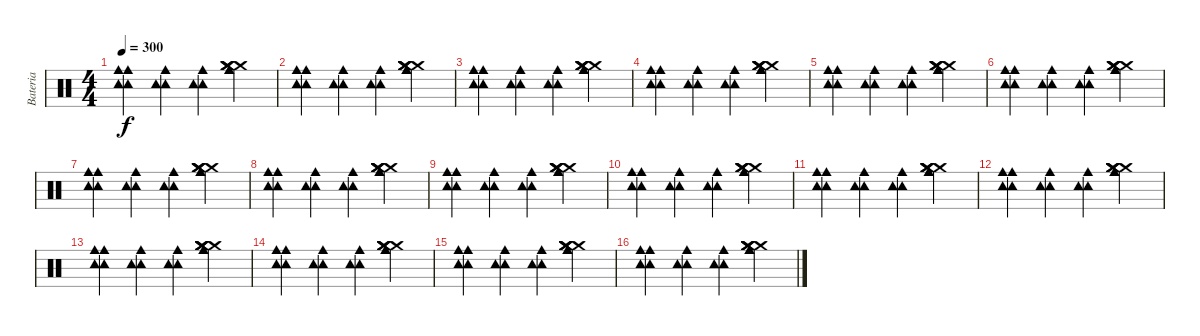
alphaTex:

\track ("Bateria" "Bateria") {instrument percussion}
\staff {score}
\articulation defaults
\ts (4 4)
\tempo 300
\clef neutral
\ks c
("Tambourine (hit)" "Tambourine (hit)" "Cowbell medium (hit)" "Cowbell medium (hit)").4{dy f} ("Tambourine (hit)" "Tambourine (hit)" "Cowbell medium (hit)").4 ("Tambourine (hit)" "Tambourine (hit)" "Cowbell medium (hit)").4 ("Crash medium (hit)" "Crash medium (hit)" "Crash medium (hit)" "Crash medium (hit)" "Cowbell medium (hit)" "Cowbell medium (hit)").4 |
("Tambourine (hit)" "Tambourine (hit)" "Cowbell medium (hit)" "Cowbell medium (hit)").4 ("Tambourine (hit)" "Tambourine (hit)" "Cowbell medium (hit)").4 ("Tambourine (hit)" "Tambourine (hit)" "Cowbell medium (hit)").4 ("Crash medium (hit)" "Crash medium (hit)" "Crash medium (hit)" "Crash medium (hit)" "Cowbell medium (hit)" "Cowbell medium (hit)").4 |
("Tambourine (hit)" "Tambourine (hit)" "Cowbell medium (hit)" "Cowbell medium (hit)").4 ("Tambourine (hit)" "Tambourine (hit)" "Cowbell medium (hit)").4 ("Tambourine (hit)" "Tambourine (hit)" "Cowbell medium (hit)").4 ("Crash medium (hit)" "Crash medium (hit)" "Crash medium (hit)" "Crash medium (hit)" "Cowbell medium (hit)" "Cowbell medium (hit)").4 |
("Tambourine (hit)" "Tambourine (hit)" "Cowbell medium (hit)" "Cowbell medium (hit)").4 ("Tambourine (hit)" "Tambourine (hit)" "Cowbell medium (hit)").4 ("Tambourine (hit)" "Tambourine (hit)" "Cowbell medium (hit)").4 ("Crash medium (hit)" "Crash medium (hit)" "Crash medium (hit)" "Crash medium (hit)" "Cowbell medium (hit)" "Cowbell medium (hit)").4 |
("Tambourine (hit)" "Tambourine (hit)" "Cowbell medium (hit)" "Cowbell medium (hit)").4 ("Tambourine (hit)" "Tambourine (hit)" "Cowbell medium (hit)").4 ("Tambourine (hit)" "Tambourine (hit)" "Cowbell medium (hit)").4 ("Crash medium (hit)" "Crash medium (hit)" "Crash medium (hit)" "Crash medium (hit)" "Cowbell medium (hit)" "Cowbell medium (hit)").4 |
("Tambourine (hit)" "Tambourine (hit)" "Cowbell medium (hit)" "Cowbell medium (hit)").4 ("Tambourine (hit)" "Tambourine (hit)" "Cowbell medium (hit)").4 ("Tambourine (hit)" "Tambourine (hit)" "Cowbell medium (hit)").4 ("Crash medium (hit)" "Crash medium (hit)" "Crash medium (hit)" "Crash medium (hit)" "Cowbell medium (hit)" "Cowbell medium (hit)").4 |
("Tambourine (hit)" "Tambourine (hit)" "Cowbell medium (hit)" "Cowbell medium (hit)").4 ("Tambourine (hit)" "Tambourine (hit)" "Cowbell medium (hit)").4 ("Tambourine (hit)" "Tambourine (hit)" "Cowbell medium (hit)").4 ("Crash medium (hit)" "Crash medium (hit)" "Crash medium (hit)" "Crash medium (hit)" "Cowbell medium (hit)" "Cowbell medium (hit)").4 |
("Tambourine (hit)" "Tambourine (hit)" "Cowbell medium (hit)" "Cowbell medium (hit)").4 ("Tambourine (hit)" "Tambourine (hit)" "Cowbell medium (hit)").4 ("Tambourine (hit)" "Tambourine (hit)" "Cowbell medium (hit)").4 ("Crash medium (hit)" "Crash medium (hit)" "Crash medium (hit)" "Crash medium (hit)" "Cowbell medium (hit)" "Cowbell medium (hit)").4 |
("Tambourine (hit)" "Tambourine (hit)" "Cowbell medium (hit)" "Cowbell medium (hit)").4 ("Tambourine (hit)" "Tambourine (hit)" "Cowbell medium (hit)").4 ("Tambourine (hit)" "Tambourine (hit)" "Cowbell medium (hit)").4 ("Crash medium (hit)" "Crash medium (hit)" "Crash medium (hit)" "Crash medium (hit)" "Cowbell medium (hit)" "Cowbell medium (hit)").4 |
("Tambourine (hit)" "Tambourine (hit)" "Cowbell medium (hit)" "Cowbell medium (hit)").4 ("Tambourine (hit)" "Tambourine (hit)" "Cowbell medium (hit)").4 ("Tambourine (hit)" "Tambourine (hit)" "Cowbell medium (hit)").4 ("Crash medium (hit)" "Crash medium (hit)" "Crash medium (hit)" "Crash medium (hit)" "Cowbell medium (hit)" "Cowbell medium (hit)").4 |
("Tambourine (hit)" "Tambourine (hit)" "Cowbell medium (hit)" "Cowbell medium (hit)").4 ("Tambourine (hit)" "Tambourine (hit)" "Cowbell medium (hit)").4 ("Tambourine (hit)" "Tambourine (hit)" "Cowbell medium (hit)").4 ("Crash medium (hit)" "Crash medium (hit)" "Crash medium (hit)" "Crash medium (hit)" "Cowbell medium (hit)" "Cowbell medium (hit)").4 |
("Tambourine (hit)" "Tambourine (hit)" "Cowbell medium (hit)" "Cowbell medium (hit)").4 ("Tambourine (hit)" "Tambourine (hit)" "Cowbell medium (hit)").4 ("Tambourine (hit)" "Tambourine (hit)" "Cowbell medium (hit)").4 ("Crash medium (hit)" "Crash medium (hit)" "Crash medium (hit)" "Crash medium (hit)" "Cowbell medium (hit)" "Cowbell medium (hit)").4 |
("Tambourine (hit)" "Tambourine (hit)" "Cowbell medium (hit)" "Cowbell medium (hit)").4 ("Tambourine (hit)" "Tambourine (hit)" "Cowbell medium (hit)").4 ("Tambourine (hit)" "Tambourine (hit)" "Cowbell medium (hit)").4 ("Crash medium (hit)" "Crash medium (hit)" "Crash medium (hit)" "Crash medium (hit)" "Cowbell medium (hit)" "Cowbell medium (hit)").4 |
("Tambourine (hit)" "Tambourine (hit)" "Cowbell medium (hit)" "Cowbell medium (hit)").4 ("Tambourine (hit)" "Tambourine (hit)" "Cowbell medium (hit)").4 ("Tambourine (hit)" "Tambourine (hit)" "Cowbell medium (hit)").4 ("Crash medium (hit)" "Crash medium (hit)" "Crash medium (hit)" "Crash medium (hit)" "Cowbell medium (hit)" "Cowbell medium (hit)").4 |
("Tambourine (hit)" "Tambourine (hit)" "Cowbell medium (hit)" "Cowbell medium (hit)").4 ("Tambourine (hit)" "Tambourine (hit)" "Cowbell medium (hit)").4 ("Tambourine (hit)" "Tambourine (hit)" "Cowbell medium (hit)").4 ("Crash medium (hit)" "Crash medium (hit)" "Crash medium (hit)" "Crash medium (hit)" "Cowbell medium (hit)" "Cowbell medium (hit)").4 |
("Tambourine (hit)" "Tambourine (hit)" "Cowbell medium (hit)" "Cowbell medium (hit)").4 ("Tambourine (hit)" "Tambourine (hit)" "Cowbell medium (hit)").4 ("Tambourine (hit)" "Tambourine (hit)" "Cowbell medium (hit)").4 ("Crash medium (hit)" "Crash medium (hit)" "Crash medium (hit)" "Crash medium (hit)" "Cowbell medium (hit)" "Cowbell medium (hit)").4
